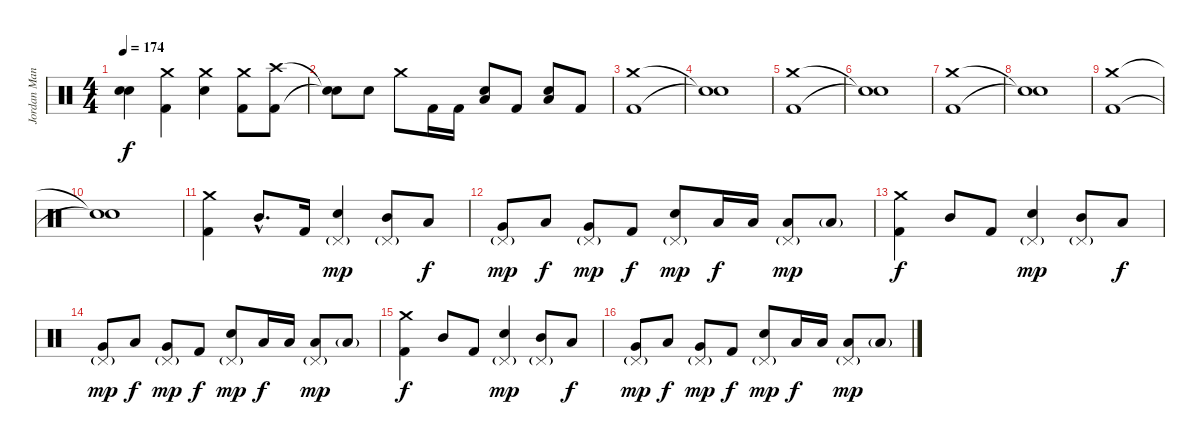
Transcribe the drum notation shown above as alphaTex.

\track ("Jordan Manchino (Drums)" "Jordan Man") {instrument percussion}
\staff {score}
\articulation defaults
\ts (4 4)
\tempo 174
\clef neutral
\ks c
("Snare (hit)"{t} "Snare (hit)"{t}).4{dy f} ("Crash medium (hit)" "Kick (hit) 2").4 ("Crash medium (hit)" "Snare (hit) 2").4 ("Crash medium (hit)" "Kick (hit) 2").8 ("Crash high (hit)" "Kick (hit) 2").8 |
("Snare (hit)"{t} "Snare (hit)"{t}).8 "Snare (hit) 2".8 "Crash medium (hit)".8 "Kick (hit) 2".16 "Kick (hit) 2".16 ("Low Floor Tom (hit)" "Snare (hit) 2").8 "Kick (hit) 2".8 ("Low Floor Tom (hit)" "Snare (hit) 2").8 "Kick (hit) 2".8 |
("Crash medium (hit)" "Kick (hit) 2").1 |
("Snare (hit)"{t} "Snare (hit)"{t}).1 |
("Crash medium (hit)" "Kick (hit) 2").1 |
("Snare (hit)"{t} "Snare (hit)"{t}).1 |
("Crash medium (hit)" "Kick (hit) 2").1 |
("Snare (hit)"{t} "Snare (hit)"{t}).1 |
("Crash medium (hit)" "Kick (hit) 2").1 |
("Snare (hit)"{t} "Snare (hit)"{t}).1 |
("Crash medium (hit)" "Kick (hit) 2").4 "Mid Tom (hit)"{hac}.8{d} "Kick (hit) 2".16 ("Pedal Hi-Hat (hit)"{g} "Snare (hit) 2").4{dy mp} ("Pedal Hi-Hat (hit)"{g} "Mid Tom (hit)").8 "Low Tom (hit)".8{dy f} |
("Pedal Hi-Hat (hit)"{g} "Very Low Tom (hit)").8{dy mp} "Low Floor Tom (hit)".8{dy f} ("Pedal Hi-Hat (hit)"{g} "Very Low Tom (hit)").8{dy mp} "Kick (hit) 2".8{dy f} ("Pedal Hi-Hat (hit)"{g} "Snare (hit) 2").8{dy mp} "Low Tom (hit)".16{dy f} "Low Tom (hit)".16 ("Pedal Hi-Hat (hit)"{g} "Low Floor Tom (hit)").8{dy mp} "Low Floor Tom (hit)"{g}.8 |
("Crash medium (hit)" "Kick (hit) 2").4{dy f} "Mid Tom (hit)".8 "Kick (hit) 2".8 ("Pedal Hi-Hat (hit)"{g} "Snare (hit) 2").4{dy mp} ("Pedal Hi-Hat (hit)"{g} "Mid Tom (hit)").8 "Low Tom (hit)".8{dy f} |
("Pedal Hi-Hat (hit)"{g} "Very Low Tom (hit)").8{dy mp} "Low Floor Tom (hit)".8{dy f} ("Pedal Hi-Hat (hit)"{g} "Very Low Tom (hit)").8{dy mp} "Kick (hit) 2".8{dy f} ("Pedal Hi-Hat (hit)"{g} "Snare (hit) 2").8{dy mp} "Low Tom (hit)".16{dy f} "Low Tom (hit)".16 ("Pedal Hi-Hat (hit)"{g} "Low Floor Tom (hit)").8{dy mp} "Low Floor Tom (hit)"{g}.8 |
("Crash medium (hit)" "Kick (hit) 2").4{dy f} "Mid Tom (hit)".8 "Kick (hit) 2".8 ("Pedal Hi-Hat (hit)"{g} "Snare (hit) 2").4{dy mp} ("Pedal Hi-Hat (hit)"{g} "Mid Tom (hit)").8 "Low Tom (hit)".8{dy f} |
("Pedal Hi-Hat (hit)"{g} "Very Low Tom (hit)").8{dy mp} "Low Floor Tom (hit)".8{dy f} ("Pedal Hi-Hat (hit)"{g} "Very Low Tom (hit)").8{dy mp} "Kick (hit) 2".8{dy f} ("Pedal Hi-Hat (hit)"{g} "Snare (hit) 2").8{dy mp} "Low Tom (hit)".16{dy f} "Low Tom (hit)".16 ("Pedal Hi-Hat (hit)"{g} "Low Floor Tom (hit)").8{dy mp} "Low Floor Tom (hit)"{g}.8
